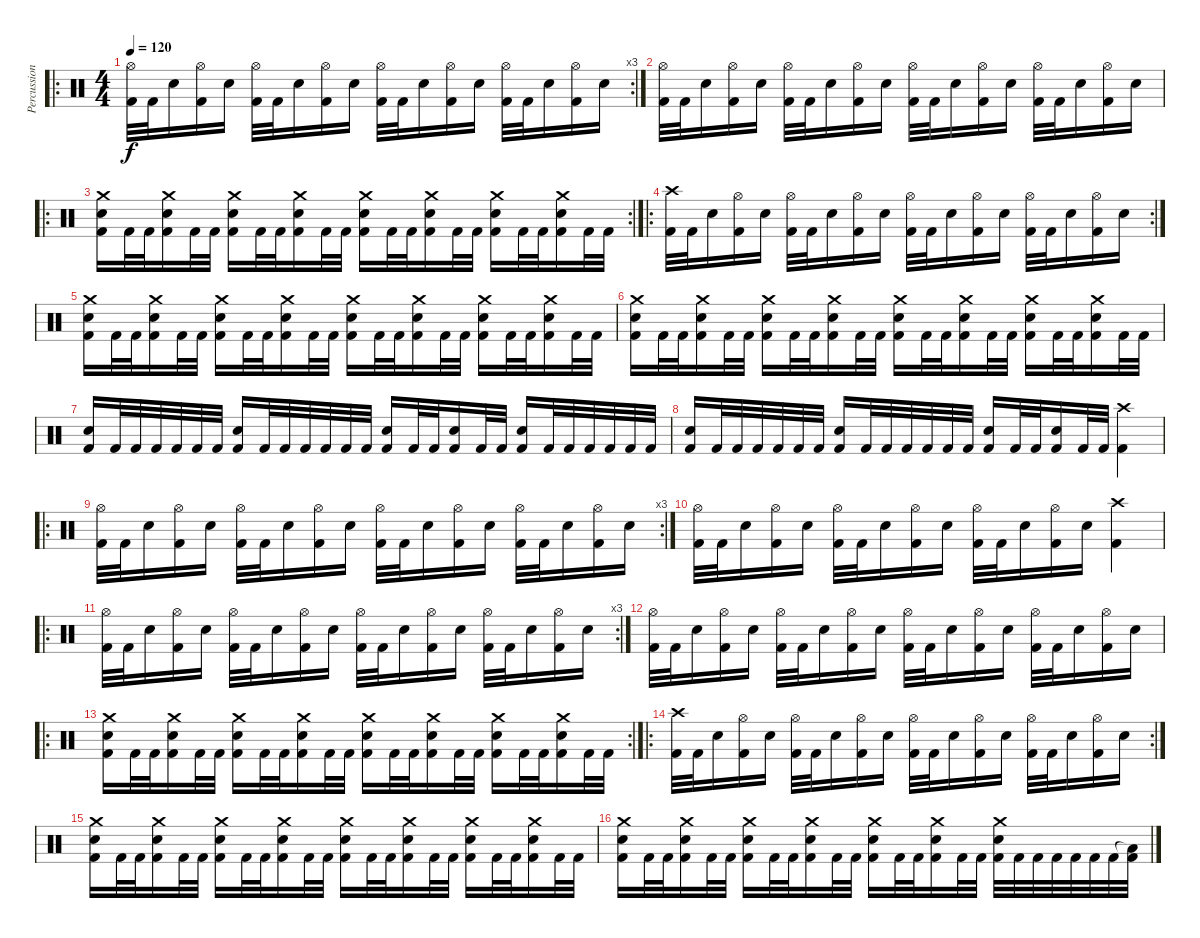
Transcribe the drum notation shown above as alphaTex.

\track ("Percussion" "Percussion") {instrument percussion}
\staff {score}
\articulation defaults
\ro
\rc 3
\ts (4 4)
\tempo 120
\clef neutral
\ks c
("Hi-Hat (open)" "Kick (hit) 2").32{dy f} "Kick (hit) 2".32 "Electric Snare (hit)".16 ("Hi-Hat (open)" "Kick (hit) 2").16 "Electric Snare (hit)".16 ("Hi-Hat (open)" "Kick (hit) 2").32 "Kick (hit) 2".32 "Electric Snare (hit)".16 ("Hi-Hat (open)" "Kick (hit) 2").16 "Electric Snare (hit)".16 ("Hi-Hat (open)" "Kick (hit) 2").32 "Kick (hit) 2".32 "Electric Snare (hit)".16 ("Hi-Hat (open)" "Kick (hit) 2").16 "Electric Snare (hit)".16 ("Hi-Hat (open)" "Kick (hit) 2").32 "Kick (hit) 2".32 "Electric Snare (hit)".16 ("Hi-Hat (open)" "Kick (hit) 2").16 "Electric Snare (hit)".16 |
("Hi-Hat (open)" "Kick (hit) 2").32 "Kick (hit) 2".32 "Electric Snare (hit)".16 ("Hi-Hat (open)" "Kick (hit) 2").16 "Electric Snare (hit)".16 ("Hi-Hat (open)" "Kick (hit) 2").32 "Kick (hit) 2".32 "Electric Snare (hit)".16 ("Hi-Hat (open)" "Kick (hit) 2").16 "Electric Snare (hit)".16 ("Hi-Hat (open)" "Kick (hit) 2").32 "Kick (hit) 2".32 "Electric Snare (hit)".16 ("Hi-Hat (open)" "Kick (hit) 2").16 "Electric Snare (hit)".16 ("Hi-Hat (open)" "Kick (hit) 2").32 "Kick (hit) 2".32 "Electric Snare (hit)".16 ("Hi-Hat (open)" "Kick (hit) 2").16 "Electric Snare (hit)".16 |
\ro
\rc 2
("Crash medium (hit)" "Electric Snare (hit)" "Kick (hit) 2").16 "Kick (hit) 2".32 "Kick (hit) 2".32 ("Crash medium (hit)" "Electric Snare (hit)" "Kick (hit) 2").16 "Kick (hit) 2".32 "Kick (hit) 2".32 ("Crash medium (hit)" "Electric Snare (hit)" "Kick (hit) 2").16 "Kick (hit) 2".32 "Kick (hit) 2".32 ("Crash medium (hit)" "Electric Snare (hit)" "Kick (hit) 2").16 "Kick (hit) 2".32 "Kick (hit) 2".32 ("Crash medium (hit)" "Electric Snare (hit)" "Kick (hit) 2").16 "Kick (hit) 2".32 "Kick (hit) 2".32 ("Crash medium (hit)" "Electric Snare (hit)" "Kick (hit) 2").16 "Kick (hit) 2".32 "Kick (hit) 2".32 ("Crash medium (hit)" "Electric Snare (hit)" "Kick (hit) 2").16 "Kick (hit) 2".32 "Kick (hit) 2".32 ("Crash medium (hit)" "Electric Snare (hit)" "Kick (hit) 2").16 "Kick (hit) 2".32 "Kick (hit) 2".32 |
\ro
\rc 2
("Crash high (hit)" "Kick (hit) 2").32 "Kick (hit) 2".32 "Electric Snare (hit)".16 ("Hi-Hat (open)" "Kick (hit) 2").16 "Electric Snare (hit)".16 ("Hi-Hat (open)" "Kick (hit) 2").32 "Kick (hit) 2".32 "Electric Snare (hit)".16 ("Hi-Hat (open)" "Kick (hit) 2").16 "Electric Snare (hit)".16 ("Hi-Hat (open)" "Kick (hit) 2").32 "Kick (hit) 2".32 "Electric Snare (hit)".16 ("Hi-Hat (open)" "Kick (hit) 2").16 "Electric Snare (hit)".16 ("Hi-Hat (open)" "Kick (hit) 2").32 "Kick (hit) 2".32 "Electric Snare (hit)".16 ("Hi-Hat (open)" "Kick (hit) 2").16 "Electric Snare (hit)".16 |
("Crash medium (hit)" "Electric Snare (hit)" "Kick (hit) 2").16 "Kick (hit) 2".32 "Kick (hit) 2".32 ("Crash medium (hit)" "Electric Snare (hit)" "Kick (hit) 2").16 "Kick (hit) 2".32 "Kick (hit) 2".32 ("Crash medium (hit)" "Electric Snare (hit)" "Kick (hit) 2").16 "Kick (hit) 2".32 "Kick (hit) 2".32 ("Crash medium (hit)" "Electric Snare (hit)" "Kick (hit) 2").16 "Kick (hit) 2".32 "Kick (hit) 2".32 ("Crash medium (hit)" "Electric Snare (hit)" "Kick (hit) 2").16 "Kick (hit) 2".32 "Kick (hit) 2".32 ("Crash medium (hit)" "Electric Snare (hit)" "Kick (hit) 2").16 "Kick (hit) 2".32 "Kick (hit) 2".32 ("Crash medium (hit)" "Electric Snare (hit)" "Kick (hit) 2").16 "Kick (hit) 2".32 "Kick (hit) 2".32 ("Crash medium (hit)" "Electric Snare (hit)" "Kick (hit) 2").16 "Kick (hit) 2".32 "Kick (hit) 2".32 |
("Crash medium (hit)" "Electric Snare (hit)" "Kick (hit) 2").16 "Kick (hit) 2".32 "Kick (hit) 2".32 ("Crash medium (hit)" "Electric Snare (hit)" "Kick (hit) 2").16 "Kick (hit) 2".32 "Kick (hit) 2".32 ("Crash medium (hit)" "Electric Snare (hit)" "Kick (hit) 2").16 "Kick (hit) 2".32 "Kick (hit) 2".32 ("Crash medium (hit)" "Electric Snare (hit)" "Kick (hit) 2").16 "Kick (hit) 2".32 "Kick (hit) 2".32 ("Crash medium (hit)" "Electric Snare (hit)" "Kick (hit) 2").16 "Kick (hit) 2".32 "Kick (hit) 2".32 ("Crash medium (hit)" "Electric Snare (hit)" "Kick (hit) 2").16 "Kick (hit) 2".32 "Kick (hit) 2".32 ("Crash medium (hit)" "Electric Snare (hit)" "Kick (hit) 2").16 "Kick (hit) 2".32 "Kick (hit) 2".32 ("Crash medium (hit)" "Electric Snare (hit)" "Kick (hit) 2").16 "Kick (hit) 2".32 "Kick (hit) 2".32 |
("Electric Snare (hit)" "Kick (hit) 2").16 "Kick (hit) 2".32 "Kick (hit) 2".32 "Kick (hit) 2".32 "Kick (hit) 2".32 "Kick (hit) 2".32 "Kick (hit) 2".32 ("Electric Snare (hit)" "Kick (hit) 2").16 "Kick (hit) 2".32 "Kick (hit) 2".32 "Kick (hit) 2".32 "Kick (hit) 2".32 "Kick (hit) 2".32 "Kick (hit) 2".32 ("Electric Snare (hit)" "Kick (hit) 2").16 "Kick (hit) 2".32 "Kick (hit) 2".32 ("Electric Snare (hit)" "Kick (hit) 2").16 "Kick (hit) 2".32 "Kick (hit) 2".32 ("Electric Snare (hit)" "Kick (hit) 2").16 "Kick (hit) 2".32 "Kick (hit) 2".32 "Kick (hit) 2".32 "Kick (hit) 2".32 "Kick (hit) 2".32 "Kick (hit) 2".32 |
("Electric Snare (hit)" "Kick (hit) 2").16 "Kick (hit) 2".32 "Kick (hit) 2".32 "Kick (hit) 2".32 "Kick (hit) 2".32 "Kick (hit) 2".32 "Kick (hit) 2".32 ("Electric Snare (hit)" "Kick (hit) 2").16 "Kick (hit) 2".32 "Kick (hit) 2".32 "Kick (hit) 2".32 "Kick (hit) 2".32 "Kick (hit) 2".32 "Kick (hit) 2".32 ("Electric Snare (hit)" "Kick (hit) 2").16 "Kick (hit) 2".32 "Kick (hit) 2".32 ("Electric Snare (hit)" "Kick (hit) 2").16 "Kick (hit) 2".32 "Kick (hit) 2".32 ("Crash high (hit)" "Kick (hit) 2").4 |
\ro
\rc 3
("Hi-Hat (open)" "Kick (hit) 2").32 "Kick (hit) 2".32 "Electric Snare (hit)".16 ("Hi-Hat (open)" "Kick (hit) 2").16 "Electric Snare (hit)".16 ("Hi-Hat (open)" "Kick (hit) 2").32 "Kick (hit) 2".32 "Electric Snare (hit)".16 ("Hi-Hat (open)" "Kick (hit) 2").16 "Electric Snare (hit)".16 ("Hi-Hat (open)" "Kick (hit) 2").32 "Kick (hit) 2".32 "Electric Snare (hit)".16 ("Hi-Hat (open)" "Kick (hit) 2").16 "Electric Snare (hit)".16 ("Hi-Hat (open)" "Kick (hit) 2").32 "Kick (hit) 2".32 "Electric Snare (hit)".16 ("Hi-Hat (open)" "Kick (hit) 2").16 "Electric Snare (hit)".16 |
("Hi-Hat (open)" "Kick (hit) 2").32 "Kick (hit) 2".32 "Electric Snare (hit)".16 ("Hi-Hat (open)" "Kick (hit) 2").16 "Electric Snare (hit)".16 ("Hi-Hat (open)" "Kick (hit) 2").32 "Kick (hit) 2".32 "Electric Snare (hit)".16 ("Hi-Hat (open)" "Kick (hit) 2").16 "Electric Snare (hit)".16 ("Hi-Hat (open)" "Kick (hit) 2").32 "Kick (hit) 2".32 "Electric Snare (hit)".16 ("Hi-Hat (open)" "Kick (hit) 2").16 "Electric Snare (hit)".16 ("Crash high (hit)" "Kick (hit) 2").4 |
\ro
\rc 3
("Hi-Hat (open)" "Kick (hit) 2").32 "Kick (hit) 2".32 "Electric Snare (hit)".16 ("Hi-Hat (open)" "Kick (hit) 2").16 "Electric Snare (hit)".16 ("Hi-Hat (open)" "Kick (hit) 2").32 "Kick (hit) 2".32 "Electric Snare (hit)".16 ("Hi-Hat (open)" "Kick (hit) 2").16 "Electric Snare (hit)".16 ("Hi-Hat (open)" "Kick (hit) 2").32 "Kick (hit) 2".32 "Electric Snare (hit)".16 ("Hi-Hat (open)" "Kick (hit) 2").16 "Electric Snare (hit)".16 ("Hi-Hat (open)" "Kick (hit) 2").32 "Kick (hit) 2".32 "Electric Snare (hit)".16 ("Hi-Hat (open)" "Kick (hit) 2").16 "Electric Snare (hit)".16 |
("Hi-Hat (open)" "Kick (hit) 2").32 "Kick (hit) 2".32 "Electric Snare (hit)".16 ("Hi-Hat (open)" "Kick (hit) 2").16 "Electric Snare (hit)".16 ("Hi-Hat (open)" "Kick (hit) 2").32 "Kick (hit) 2".32 "Electric Snare (hit)".16 ("Hi-Hat (open)" "Kick (hit) 2").16 "Electric Snare (hit)".16 ("Hi-Hat (open)" "Kick (hit) 2").32 "Kick (hit) 2".32 "Electric Snare (hit)".16 ("Hi-Hat (open)" "Kick (hit) 2").16 "Electric Snare (hit)".16 ("Hi-Hat (open)" "Kick (hit) 2").32 "Kick (hit) 2".32 "Electric Snare (hit)".16 ("Hi-Hat (open)" "Kick (hit) 2").16 "Electric Snare (hit)".16 |
\ro
\rc 2
("Crash medium (hit)" "Electric Snare (hit)" "Kick (hit) 2").16 "Kick (hit) 2".32 "Kick (hit) 2".32 ("Crash medium (hit)" "Electric Snare (hit)" "Kick (hit) 2").16 "Kick (hit) 2".32 "Kick (hit) 2".32 ("Crash medium (hit)" "Electric Snare (hit)" "Kick (hit) 2").16 "Kick (hit) 2".32 "Kick (hit) 2".32 ("Crash medium (hit)" "Electric Snare (hit)" "Kick (hit) 2").16 "Kick (hit) 2".32 "Kick (hit) 2".32 ("Crash medium (hit)" "Electric Snare (hit)" "Kick (hit) 2").16 "Kick (hit) 2".32 "Kick (hit) 2".32 ("Crash medium (hit)" "Electric Snare (hit)" "Kick (hit) 2").16 "Kick (hit) 2".32 "Kick (hit) 2".32 ("Crash medium (hit)" "Electric Snare (hit)" "Kick (hit) 2").16 "Kick (hit) 2".32 "Kick (hit) 2".32 ("Crash medium (hit)" "Electric Snare (hit)" "Kick (hit) 2").16 "Kick (hit) 2".32 "Kick (hit) 2".32 |
\ro
\rc 2
("Crash high (hit)" "Kick (hit) 2").32 "Kick (hit) 2".32 "Electric Snare (hit)".16 ("Hi-Hat (open)" "Kick (hit) 2").16 "Electric Snare (hit)".16 ("Hi-Hat (open)" "Kick (hit) 2").32 "Kick (hit) 2".32 "Electric Snare (hit)".16 ("Hi-Hat (open)" "Kick (hit) 2").16 "Electric Snare (hit)".16 ("Hi-Hat (open)" "Kick (hit) 2").32 "Kick (hit) 2".32 "Electric Snare (hit)".16 ("Hi-Hat (open)" "Kick (hit) 2").16 "Electric Snare (hit)".16 ("Hi-Hat (open)" "Kick (hit) 2").32 "Kick (hit) 2".32 "Electric Snare (hit)".16 ("Hi-Hat (open)" "Kick (hit) 2").16 "Electric Snare (hit)".16 |
("Crash medium (hit)" "Electric Snare (hit)" "Kick (hit) 2").16 "Kick (hit) 2".32 "Kick (hit) 2".32 ("Crash medium (hit)" "Electric Snare (hit)" "Kick (hit) 2").16 "Kick (hit) 2".32 "Kick (hit) 2".32 ("Crash medium (hit)" "Electric Snare (hit)" "Kick (hit) 2").16 "Kick (hit) 2".32 "Kick (hit) 2".32 ("Crash medium (hit)" "Electric Snare (hit)" "Kick (hit) 2").16 "Kick (hit) 2".32 "Kick (hit) 2".32 ("Crash medium (hit)" "Electric Snare (hit)" "Kick (hit) 2").16 "Kick (hit) 2".32 "Kick (hit) 2".32 ("Crash medium (hit)" "Electric Snare (hit)" "Kick (hit) 2").16 "Kick (hit) 2".32 "Kick (hit) 2".32 ("Crash medium (hit)" "Electric Snare (hit)" "Kick (hit) 2").16 "Kick (hit) 2".32 "Kick (hit) 2".32 ("Crash medium (hit)" "Electric Snare (hit)" "Kick (hit) 2").16 "Kick (hit) 2".32 "Kick (hit) 2".32 |
("Crash medium (hit)" "Electric Snare (hit)" "Kick (hit) 2").16 "Kick (hit) 2".32 "Kick (hit) 2".32 ("Crash medium (hit)" "Electric Snare (hit)" "Kick (hit) 2").16 "Kick (hit) 2".32 "Kick (hit) 2".32 ("Crash medium (hit)" "Electric Snare (hit)" "Kick (hit) 2").16 "Kick (hit) 2".32 "Kick (hit) 2".32 ("Crash medium (hit)" "Electric Snare (hit)" "Kick (hit) 2").16 "Kick (hit) 2".32 "Kick (hit) 2".32 ("Crash medium (hit)" "Electric Snare (hit)" "Kick (hit) 2").16 "Kick (hit) 2".32 "Kick (hit) 2".32 ("Crash medium (hit)" "Electric Snare (hit)" "Kick (hit) 2").16 "Kick (hit) 2".32 "Kick (hit) 2".32 ("Crash medium (hit)" "Electric Snare (hit)" "Kick (hit) 2").32 "Kick (hit) 2".32 "Kick (hit) 2".32 "Kick (hit) 2".32 "Kick (hit) 2".32 "Kick (hit) 2".32 "Kick (hit) 2".32 ("Low Tom (hit)"{t} "Kick (hit) 2").32
